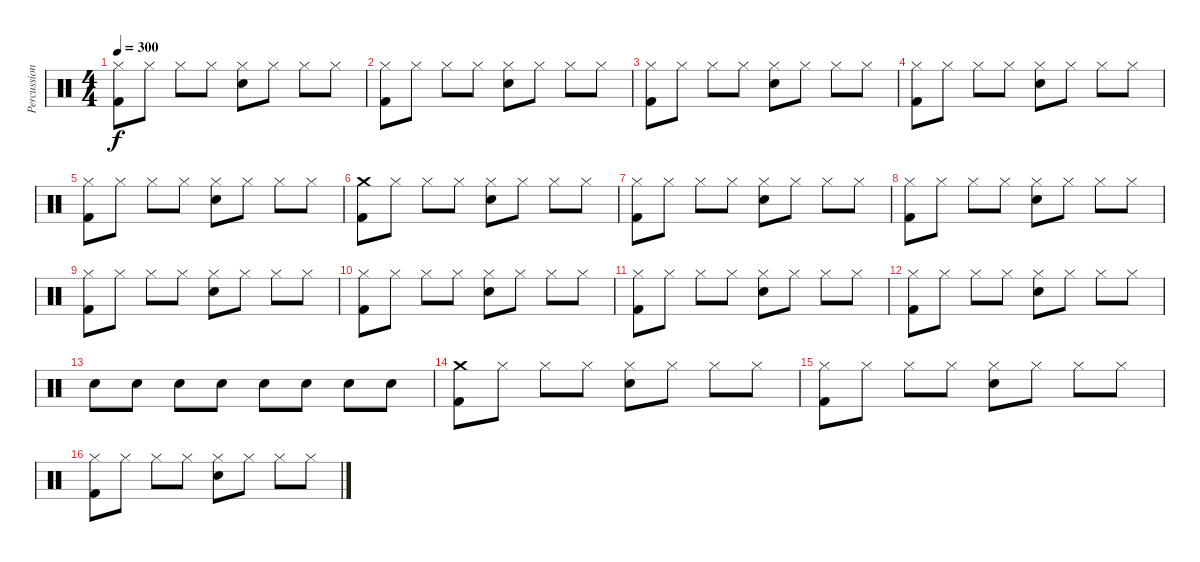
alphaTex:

\track ("Percussion" "Percussion") {instrument percussion}
\staff {score}
\articulation defaults
\ts (4 4)
\tempo 300
\clef neutral
\ks c
("Kick (hit) 2" "Hi-Hat (closed)").8{dy f} "Hi-Hat (closed)".8 "Hi-Hat (closed)".8 "Hi-Hat (closed)".8 ("Snare (hit) 2" "Hi-Hat (closed)").8 "Hi-Hat (closed)".8 "Hi-Hat (closed)".8 "Hi-Hat (closed)".8 |
("Kick (hit) 2" "Hi-Hat (closed)").8 "Hi-Hat (closed)".8 "Hi-Hat (closed)".8 "Hi-Hat (closed)".8 ("Snare (hit) 2" "Hi-Hat (closed)").8 "Hi-Hat (closed)".8 "Hi-Hat (closed)".8 "Hi-Hat (closed)".8 |
("Kick (hit) 2" "Hi-Hat (closed)").8 "Hi-Hat (closed)".8 "Hi-Hat (closed)".8 "Hi-Hat (closed)".8 ("Snare (hit) 2" "Hi-Hat (closed)").8 "Hi-Hat (closed)".8 "Hi-Hat (closed)".8 "Hi-Hat (closed)".8 |
("Kick (hit) 2" "Hi-Hat (closed)").8 "Hi-Hat (closed)".8 "Hi-Hat (closed)".8 "Hi-Hat (closed)".8 ("Snare (hit) 2" "Hi-Hat (closed)").8 "Hi-Hat (closed)".8 "Hi-Hat (closed)".8 "Hi-Hat (closed)".8 |
("Kick (hit) 2" "Hi-Hat (closed)").8 "Hi-Hat (closed)".8 "Hi-Hat (closed)".8 "Hi-Hat (closed)".8 ("Snare (hit) 2" "Hi-Hat (closed)").8 "Hi-Hat (closed)".8 "Hi-Hat (closed)".8 "Hi-Hat (closed)".8 |
("Crash medium (hit)" "Kick (hit) 2").8 "Hi-Hat (closed)".8 "Hi-Hat (closed)".8 "Hi-Hat (closed)".8 ("Snare (hit) 2" "Hi-Hat (closed)").8 "Hi-Hat (closed)".8 "Hi-Hat (closed)".8 "Hi-Hat (closed)".8 |
("Kick (hit) 2" "Hi-Hat (closed)").8 "Hi-Hat (closed)".8 "Hi-Hat (closed)".8 "Hi-Hat (closed)".8 ("Snare (hit) 2" "Hi-Hat (closed)").8 "Hi-Hat (closed)".8 "Hi-Hat (closed)".8 "Hi-Hat (closed)".8 |
("Kick (hit) 2" "Hi-Hat (closed)").8 "Hi-Hat (closed)".8 "Hi-Hat (closed)".8 "Hi-Hat (closed)".8 ("Snare (hit) 2" "Hi-Hat (closed)").8 "Hi-Hat (closed)".8 "Hi-Hat (closed)".8 "Hi-Hat (closed)".8 |
("Kick (hit) 2" "Hi-Hat (closed)").8 "Hi-Hat (closed)".8 "Hi-Hat (closed)".8 "Hi-Hat (closed)".8 ("Snare (hit) 2" "Hi-Hat (closed)").8 "Hi-Hat (closed)".8 "Hi-Hat (closed)".8 "Hi-Hat (closed)".8 |
("Kick (hit) 2" "Hi-Hat (closed)").8 "Hi-Hat (closed)".8 "Hi-Hat (closed)".8 "Hi-Hat (closed)".8 ("Snare (hit) 2" "Hi-Hat (closed)").8 "Hi-Hat (closed)".8 "Hi-Hat (closed)".8 "Hi-Hat (closed)".8 |
("Kick (hit) 2" "Hi-Hat (closed)").8 "Hi-Hat (closed)".8 "Hi-Hat (closed)".8 "Hi-Hat (closed)".8 ("Snare (hit) 2" "Hi-Hat (closed)").8 "Hi-Hat (closed)".8 "Hi-Hat (closed)".8 "Hi-Hat (closed)".8 |
("Kick (hit) 2" "Hi-Hat (closed)").8 "Hi-Hat (closed)".8 "Hi-Hat (closed)".8 "Hi-Hat (closed)".8 ("Snare (hit) 2" "Hi-Hat (closed)").8 "Hi-Hat (closed)".8 "Hi-Hat (closed)".8 "Hi-Hat (closed)".8 |
"Snare (hit) 2".8 "Snare (hit) 2".8 "Snare (hit) 2".8 "Snare (hit) 2".8 "Snare (hit) 2".8 "Snare (hit) 2".8 "Snare (hit) 2".8 "Snare (hit) 2".8 |
("Crash medium (hit)" "Kick (hit) 2").8 "Hi-Hat (closed)".8 "Hi-Hat (closed)".8 "Hi-Hat (closed)".8 ("Snare (hit) 2" "Hi-Hat (closed)").8 "Hi-Hat (closed)".8 "Hi-Hat (closed)".8 "Hi-Hat (closed)".8 |
("Kick (hit) 2" "Hi-Hat (closed)").8 "Hi-Hat (closed)".8 "Hi-Hat (closed)".8 "Hi-Hat (closed)".8 ("Snare (hit) 2" "Hi-Hat (closed)").8 "Hi-Hat (closed)".8 "Hi-Hat (closed)".8 "Hi-Hat (closed)".8 |
("Kick (hit) 2" "Hi-Hat (closed)").8 "Hi-Hat (closed)".8 "Hi-Hat (closed)".8 "Hi-Hat (closed)".8 ("Snare (hit) 2" "Hi-Hat (closed)").8 "Hi-Hat (closed)".8 "Hi-Hat (closed)".8 "Hi-Hat (closed)".8
